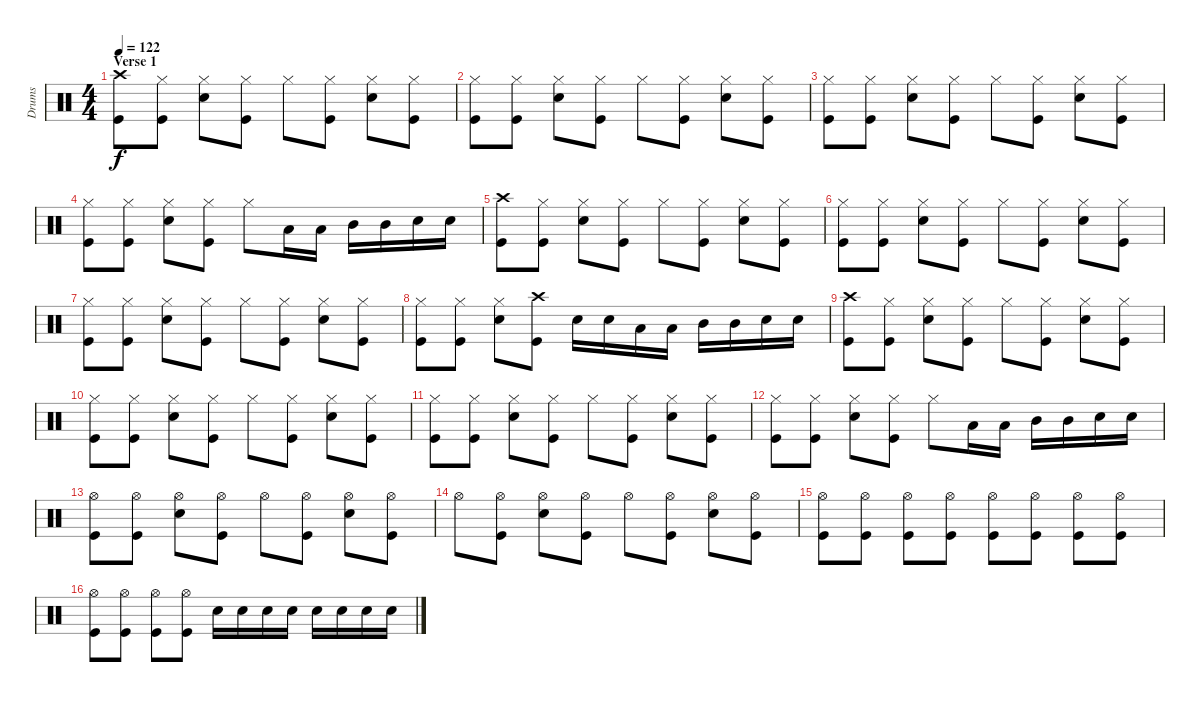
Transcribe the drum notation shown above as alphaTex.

\track ("Drums" "Drums") {instrument percussion}
\staff {score}
\articulation defaults
\ts (4 4)
\section ("" "Verse 1")
\tempo 122
\clef neutral
\ks c
("Crash high (hit)" "Kick (hit)").8{dy f} ("Hi-Hat (closed)" "Kick (hit)").8 ("Hi-Hat (closed)" "Snare (hit) 2").8 ("Hi-Hat (closed)" "Kick (hit)").8 "Hi-Hat (closed)".8 ("Hi-Hat (closed)" "Kick (hit)").8 ("Hi-Hat (closed)" "Snare (hit) 2").8 ("Hi-Hat (closed)" "Kick (hit)").8 |
("Hi-Hat (closed)" "Kick (hit)").8 ("Hi-Hat (closed)" "Kick (hit)").8 ("Hi-Hat (closed)" "Snare (hit) 2").8 ("Hi-Hat (closed)" "Kick (hit)").8 "Hi-Hat (closed)".8 ("Hi-Hat (closed)" "Kick (hit)").8 ("Hi-Hat (closed)" "Snare (hit) 2").8 ("Hi-Hat (closed)" "Kick (hit)").8 |
("Hi-Hat (closed)" "Kick (hit)").8 ("Hi-Hat (closed)" "Kick (hit)").8 ("Hi-Hat (closed)" "Snare (hit) 2").8 ("Hi-Hat (closed)" "Kick (hit)").8 "Hi-Hat (closed)".8 ("Hi-Hat (closed)" "Kick (hit)").8 ("Hi-Hat (closed)" "Snare (hit) 2").8 ("Hi-Hat (closed)" "Kick (hit)").8 |
("Hi-Hat (closed)" "Kick (hit)").8 ("Hi-Hat (closed)" "Kick (hit)").8 ("Hi-Hat (closed)" "Snare (hit) 2").8 ("Hi-Hat (closed)" "Kick (hit)").8 "Hi-Hat (closed)".8 "Low Tom (hit)".16 "Low Tom (hit)".16 "Mid Tom (hit)".16 "Mid Tom (hit)".16 "Snare (hit) 2".16 "Snare (hit) 2".16 |
("Crash high (hit)" "Kick (hit)").8 ("Hi-Hat (closed)" "Kick (hit)").8 ("Hi-Hat (closed)" "Snare (hit) 2").8 ("Hi-Hat (closed)" "Kick (hit)").8 "Hi-Hat (closed)".8 ("Hi-Hat (closed)" "Kick (hit)").8 ("Hi-Hat (closed)" "Snare (hit) 2").8 ("Hi-Hat (closed)" "Kick (hit)").8 |
("Hi-Hat (closed)" "Kick (hit)").8 ("Hi-Hat (closed)" "Kick (hit)").8 ("Hi-Hat (closed)" "Snare (hit) 2").8 ("Hi-Hat (closed)" "Kick (hit)").8 "Hi-Hat (closed)".8 ("Hi-Hat (closed)" "Kick (hit)").8 ("Hi-Hat (closed)" "Snare (hit) 2").8 ("Hi-Hat (closed)" "Kick (hit)").8 |
("Hi-Hat (closed)" "Kick (hit)").8 ("Hi-Hat (closed)" "Kick (hit)").8 ("Hi-Hat (closed)" "Snare (hit) 2").8 ("Hi-Hat (closed)" "Kick (hit)").8 "Hi-Hat (closed)".8 ("Hi-Hat (closed)" "Kick (hit)").8 ("Hi-Hat (closed)" "Snare (hit) 2").8 ("Hi-Hat (closed)" "Kick (hit)").8 |
("Hi-Hat (closed)" "Kick (hit)").8 ("Hi-Hat (closed)" "Kick (hit)").8 ("Hi-Hat (closed)" "Snare (hit) 2").8 ("Crash high (hit)" "Kick (hit)").8 "Snare (hit) 2".16 "Snare (hit) 2".16 "Low Tom (hit)".16 "Low Tom (hit)".16 "Mid Tom (hit)".16 "Mid Tom (hit)".16 "Snare (hit) 2".16 "Snare (hit) 2".16 |
("Crash high (hit)" "Kick (hit)").8 ("Hi-Hat (closed)" "Kick (hit)").8 ("Hi-Hat (closed)" "Snare (hit) 2").8 ("Hi-Hat (closed)" "Kick (hit)").8 "Hi-Hat (closed)".8 ("Hi-Hat (closed)" "Kick (hit)").8 ("Hi-Hat (closed)" "Snare (hit) 2").8 ("Hi-Hat (closed)" "Kick (hit)").8 |
("Hi-Hat (closed)" "Kick (hit)").8 ("Hi-Hat (closed)" "Kick (hit)").8 ("Hi-Hat (closed)" "Snare (hit) 2").8 ("Hi-Hat (closed)" "Kick (hit)").8 "Hi-Hat (closed)".8 ("Hi-Hat (closed)" "Kick (hit)").8 ("Hi-Hat (closed)" "Snare (hit) 2").8 ("Hi-Hat (closed)" "Kick (hit)").8 |
("Hi-Hat (closed)" "Kick (hit)").8 ("Hi-Hat (closed)" "Kick (hit)").8 ("Hi-Hat (closed)" "Snare (hit) 2").8 ("Hi-Hat (closed)" "Kick (hit)").8 "Hi-Hat (closed)".8 ("Hi-Hat (closed)" "Kick (hit)").8 ("Hi-Hat (closed)" "Snare (hit) 2").8 ("Hi-Hat (closed)" "Kick (hit)").8 |
("Hi-Hat (closed)" "Kick (hit)").8 ("Hi-Hat (closed)" "Kick (hit)").8 ("Hi-Hat (closed)" "Snare (hit) 2").8 ("Hi-Hat (closed)" "Kick (hit)").8 "Hi-Hat (closed)".8 "Low Tom (hit)".16 "Low Tom (hit)".16 "Mid Tom (hit)".16 "Mid Tom (hit)".16 "Snare (hit) 2".16 "Snare (hit) 2".16 |
("Hi-Hat (open)" "Kick (hit)").8 ("Hi-Hat (open)" "Kick (hit)").8 ("Hi-Hat (open)" "Snare (hit) 2").8 ("Hi-Hat (open)" "Kick (hit)").8 "Hi-Hat (open)".8 ("Hi-Hat (open)" "Kick (hit)").8 ("Hi-Hat (open)" "Snare (hit) 2").8 ("Hi-Hat (open)" "Kick (hit)").8 |
"Hi-Hat (open)".8 ("Hi-Hat (open)" "Kick (hit)").8 ("Hi-Hat (open)" "Snare (hit) 2").8 ("Hi-Hat (open)" "Kick (hit)").8 "Hi-Hat (open)".8 ("Hi-Hat (open)" "Kick (hit)").8 ("Hi-Hat (open)" "Snare (hit) 2").8 ("Hi-Hat (open)" "Kick (hit)").8 |
("Hi-Hat (open)" "Kick (hit)").8 ("Hi-Hat (open)" "Kick (hit)").8 ("Hi-Hat (open)" "Kick (hit)").8 ("Hi-Hat (open)" "Kick (hit)").8 ("Hi-Hat (open)" "Kick (hit)").8 ("Hi-Hat (open)" "Kick (hit)").8 ("Hi-Hat (open)" "Kick (hit)").8 ("Hi-Hat (open)" "Kick (hit)").8 |
("Hi-Hat (open)" "Kick (hit)").8 ("Hi-Hat (open)" "Kick (hit)").8 ("Hi-Hat (open)" "Kick (hit)").8 ("Hi-Hat (open)" "Kick (hit)").8 "Snare (hit) 2".16 "Snare (hit) 2".16 "Snare (hit) 2".16 "Snare (hit) 2".16 "Snare (hit) 2".16 "Snare (hit) 2".16 "Snare (hit) 2".16 "Snare (hit) 2".16
